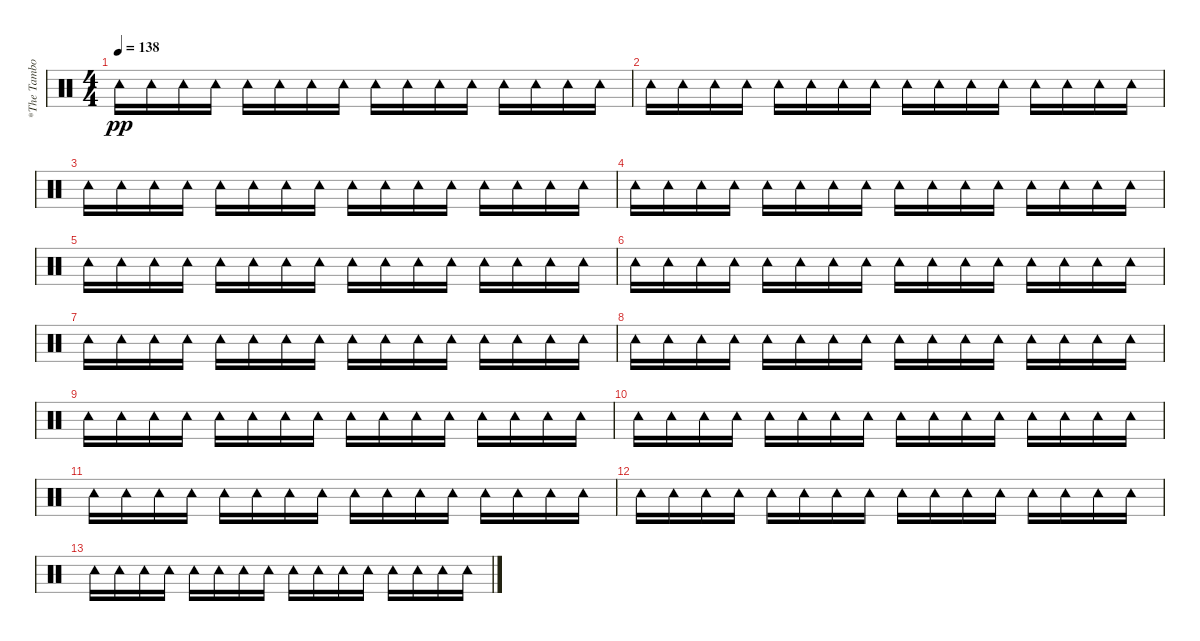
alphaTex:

\track ("*The Tambourine" "*The Tambo") {instrument percussion}
\staff {score}
\articulation defaults
\ts (4 4)
\tempo 138
\clef neutral
\ks c "Tambourine (hit)".16{dy pp} "Tambourine (hit)".16 "Tambourine (hit)".16 "Tambourine (hit)".16 "Tambourine (hit)".16 "Tambourine (hit)".16 "Tambourine (hit)".16 "Tambourine (hit)".16 "Tambourine (hit)".16 "Tambourine (hit)".16 "Tambourine (hit)".16 "Tambourine (hit)".16 "Tambourine (hit)".16 "Tambourine (hit)".16 "Tambourine (hit)".16 "Tambourine (hit)".16
|
"Tambourine (hit)".16 "Tambourine (hit)".16 "Tambourine (hit)".16 "Tambourine (hit)".16 "Tambourine (hit)".16 "Tambourine (hit)".16 "Tambourine (hit)".16 "Tambourine (hit)".16 "Tambourine (hit)".16 "Tambourine (hit)".16 "Tambourine (hit)".16 "Tambourine (hit)".16 "Tambourine (hit)".16 "Tambourine (hit)".16 "Tambourine (hit)".16 "Tambourine (hit)".16 |
"Tambourine (hit)".16 "Tambourine (hit)".16 "Tambourine (hit)".16 "Tambourine (hit)".16 "Tambourine (hit)".16 "Tambourine (hit)".16 "Tambourine (hit)".16 "Tambourine (hit)".16 "Tambourine (hit)".16 "Tambourine (hit)".16 "Tambourine (hit)".16 "Tambourine (hit)".16 "Tambourine (hit)".16 "Tambourine (hit)".16 "Tambourine (hit)".16 "Tambourine (hit)".16 |
"Tambourine (hit)".16 "Tambourine (hit)".16 "Tambourine (hit)".16 "Tambourine (hit)".16 "Tambourine (hit)".16 "Tambourine (hit)".16 "Tambourine (hit)".16 "Tambourine (hit)".16 "Tambourine (hit)".16 "Tambourine (hit)".16 "Tambourine (hit)".16 "Tambourine (hit)".16 "Tambourine (hit)".16 "Tambourine (hit)".16 "Tambourine (hit)".16 "Tambourine (hit)".16 |
"Tambourine (hit)".16 "Tambourine (hit)".16 "Tambourine (hit)".16 "Tambourine (hit)".16 "Tambourine (hit)".16 "Tambourine (hit)".16 "Tambourine (hit)".16 "Tambourine (hit)".16 "Tambourine (hit)".16 "Tambourine (hit)".16 "Tambourine (hit)".16 "Tambourine (hit)".16 "Tambourine (hit)".16 "Tambourine (hit)".16 "Tambourine (hit)".16 "Tambourine (hit)".16 |
"Tambourine (hit)".16 "Tambourine (hit)".16 "Tambourine (hit)".16 "Tambourine (hit)".16 "Tambourine (hit)".16 "Tambourine (hit)".16 "Tambourine (hit)".16 "Tambourine (hit)".16 "Tambourine (hit)".16 "Tambourine (hit)".16 "Tambourine (hit)".16 "Tambourine (hit)".16 "Tambourine (hit)".16 "Tambourine (hit)".16 "Tambourine (hit)".16 "Tambourine (hit)".16 |
"Tambourine (hit)".16 "Tambourine (hit)".16 "Tambourine (hit)".16 "Tambourine (hit)".16 "Tambourine (hit)".16 "Tambourine (hit)".16 "Tambourine (hit)".16 "Tambourine (hit)".16 "Tambourine (hit)".16 "Tambourine (hit)".16 "Tambourine (hit)".16 "Tambourine (hit)".16 "Tambourine (hit)".16 "Tambourine (hit)".16 "Tambourine (hit)".16 "Tambourine (hit)".16 |
"Tambourine (hit)".16 "Tambourine (hit)".16 "Tambourine (hit)".16 "Tambourine (hit)".16 "Tambourine (hit)".16 "Tambourine (hit)".16 "Tambourine (hit)".16 "Tambourine (hit)".16 "Tambourine (hit)".16 "Tambourine (hit)".16 "Tambourine (hit)".16 "Tambourine (hit)".16 "Tambourine (hit)".16 "Tambourine (hit)".16 "Tambourine (hit)".16 "Tambourine (hit)".16 |
"Tambourine (hit)".16 "Tambourine (hit)".16 "Tambourine (hit)".16 "Tambourine (hit)".16 "Tambourine (hit)".16 "Tambourine (hit)".16 "Tambourine (hit)".16 "Tambourine (hit)".16 "Tambourine (hit)".16 "Tambourine (hit)".16 "Tambourine (hit)".16 "Tambourine (hit)".16 "Tambourine (hit)".16 "Tambourine (hit)".16 "Tambourine (hit)".16 "Tambourine (hit)".16 |
"Tambourine (hit)".16 "Tambourine (hit)".16 "Tambourine (hit)".16 "Tambourine (hit)".16 "Tambourine (hit)".16 "Tambourine (hit)".16 "Tambourine (hit)".16 "Tambourine (hit)".16 "Tambourine (hit)".16 "Tambourine (hit)".16 "Tambourine (hit)".16 "Tambourine (hit)".16 "Tambourine (hit)".16 "Tambourine (hit)".16 "Tambourine (hit)".16 "Tambourine (hit)".16 |
"Tambourine (hit)".16 "Tambourine (hit)".16 "Tambourine (hit)".16 "Tambourine (hit)".16 "Tambourine (hit)".16 "Tambourine (hit)".16 "Tambourine (hit)".16 "Tambourine (hit)".16 "Tambourine (hit)".16 "Tambourine (hit)".16 "Tambourine (hit)".16 "Tambourine (hit)".16 "Tambourine (hit)".16 "Tambourine (hit)".16 "Tambourine (hit)".16 "Tambourine (hit)".16 |
"Tambourine (hit)".16 "Tambourine (hit)".16 "Tambourine (hit)".16 "Tambourine (hit)".16 "Tambourine (hit)".16 "Tambourine (hit)".16 "Tambourine (hit)".16 "Tambourine (hit)".16 "Tambourine (hit)".16 "Tambourine (hit)".16 "Tambourine (hit)".16 "Tambourine (hit)".16 "Tambourine (hit)".16 "Tambourine (hit)".16 "Tambourine (hit)".16 "Tambourine (hit)".16 |
"Tambourine (hit)".16 "Tambourine (hit)".16 "Tambourine (hit)".16 "Tambourine (hit)".16 "Tambourine (hit)".16 "Tambourine (hit)".16 "Tambourine (hit)".16 "Tambourine (hit)".16 "Tambourine (hit)".16 "Tambourine (hit)".16 "Tambourine (hit)".16 "Tambourine (hit)".16 "Tambourine (hit)".16 "Tambourine (hit)".16 "Tambourine (hit)".16 "Tambourine (hit)".16
